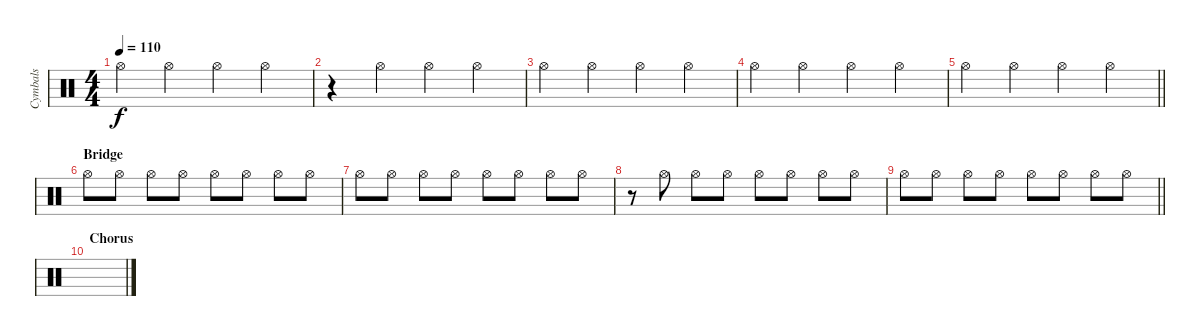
\track ("Cymbals" "Cymbals") {instrument percussion}
\staff {score}
\articulation defaults
\ts (4 4)
\tempo 110
\clef neutral
\ks c "Hi-Hat (open)".4{dy f} "Hi-Hat (open)".4 "Hi-Hat (open)".4 "Hi-Hat (open)".4
|
r.4 "Hi-Hat (open)".4 "Hi-Hat (open)".4 "Hi-Hat (open)".4 |
"Hi-Hat (open)".4 "Hi-Hat (open)".4 "Hi-Hat (open)".4 "Hi-Hat (open)".4 |
"Hi-Hat (open)".4 "Hi-Hat (open)".4 "Hi-Hat (open)".4 "Hi-Hat (open)".4 |
\barLineRight lightlight "Hi-Hat (open)".4 "Hi-Hat (open)".4 "Hi-Hat (open)".4 "Hi-Hat (open)".4
|
\section ("" "Bridge")
"Hi-Hat (open)".8 "Hi-Hat (open)".8 "Hi-Hat (open)".8 "Hi-Hat (open)".8 "Hi-Hat (open)".8 "Hi-Hat (open)".8 "Hi-Hat (open)".8 "Hi-Hat (open)".8 |
"Hi-Hat (open)".8 "Hi-Hat (open)".8 "Hi-Hat (open)".8 "Hi-Hat (open)".8 "Hi-Hat (open)".8 "Hi-Hat (open)".8 "Hi-Hat (open)".8 "Hi-Hat (open)".8 |
r.8 "Hi-Hat (open)".8 "Hi-Hat (open)".8 "Hi-Hat (open)".8 "Hi-Hat (open)".8 "Hi-Hat (open)".8 "Hi-Hat (open)".8 "Hi-Hat (open)".8 |
\barLineRight lightlight "Hi-Hat (open)".8 "Hi-Hat (open)".8 "Hi-Hat (open)".8 "Hi-Hat (open)".8 "Hi-Hat (open)".8 "Hi-Hat (open)".8 "Hi-Hat (open)".8 "Hi-Hat (open)".8
|
\section ("" "Chorus")
